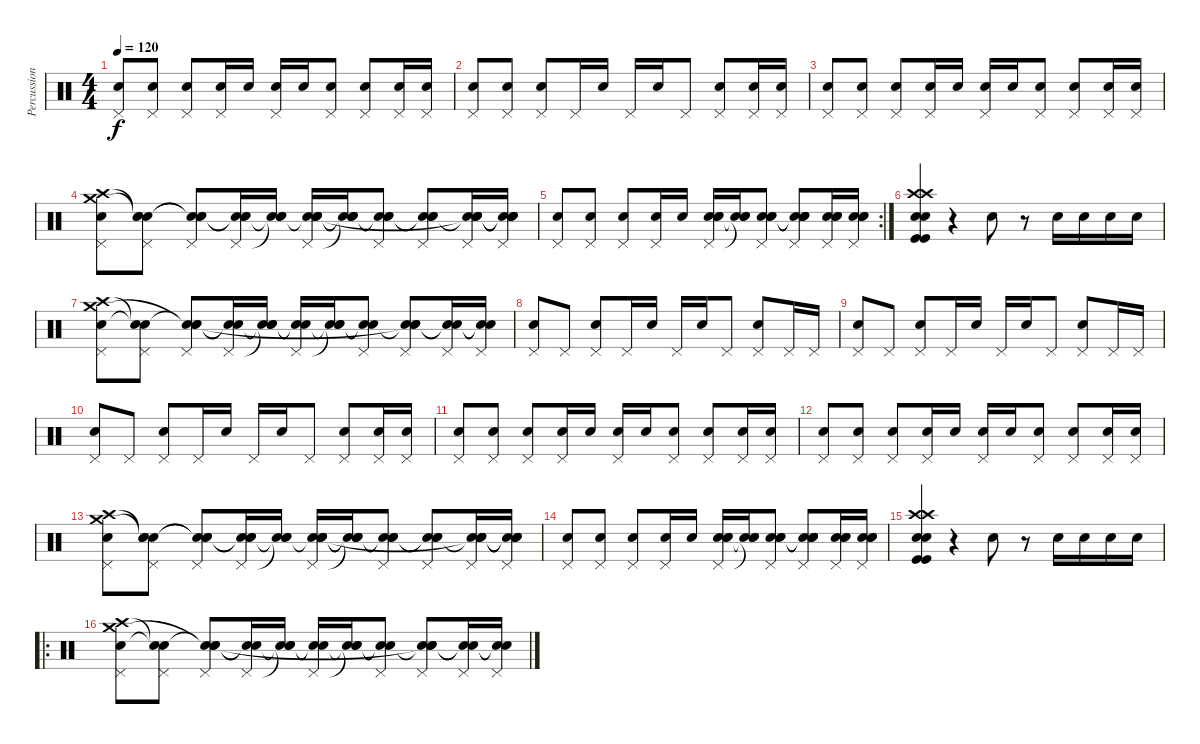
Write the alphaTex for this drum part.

\track ("Percussion" "Percussion") {instrument percussion}
\staff {score}
\articulation defaults
\ts (4 4)
\tempo 120
\clef neutral
\ks c
("Pedal Hi-Hat (hit)" "Snare (hit) 2").8{dy f} ("Pedal Hi-Hat (hit)" "Snare (hit) 2").8 ("Pedal Hi-Hat (hit)" "Electric Snare (hit)").8 ("Pedal Hi-Hat (hit)" "Snare (hit) 2").16 "Snare (hit) 2".16 ("Pedal Hi-Hat (hit)" "Snare (hit) 2").16 "Snare (hit) 2".16 ("Pedal Hi-Hat (hit)" "Snare (hit) 2").8 ("Pedal Hi-Hat (hit)" "Electric Snare (hit)").8 ("Pedal Hi-Hat (hit)" "Snare (hit) 2").16 ("Pedal Hi-Hat (hit)" "Snare (hit) 2").16 |
("Pedal Hi-Hat (hit)" "Snare (hit) 2").8 ("Pedal Hi-Hat (hit)" "Snare (hit) 2").8 ("Pedal Hi-Hat (hit)" "Electric Snare (hit)").8 "Pedal Hi-Hat (hit)".16 "Snare (hit) 2".16 "Pedal Hi-Hat (hit)".16 "Snare (hit) 2".16 "Pedal Hi-Hat (hit)".8 ("Pedal Hi-Hat (hit)" "Electric Snare (hit)").8 ("Pedal Hi-Hat (hit)" "Snare (hit) 2").16 ("Pedal Hi-Hat (hit)" "Snare (hit) 2").16 |
("Pedal Hi-Hat (hit)" "Snare (hit) 2").8 ("Pedal Hi-Hat (hit)" "Snare (hit) 2").8 ("Pedal Hi-Hat (hit)" "Electric Snare (hit)").8 ("Pedal Hi-Hat (hit)" "Snare (hit) 2").16 "Snare (hit) 2".16 ("Pedal Hi-Hat (hit)" "Snare (hit) 2").16 "Snare (hit) 2".16 ("Pedal Hi-Hat (hit)" "Snare (hit) 2").8 ("Pedal Hi-Hat (hit)" "Electric Snare (hit)").8 ("Pedal Hi-Hat (hit)" "Snare (hit) 2").16 ("Pedal Hi-Hat (hit)" "Snare (hit) 2").16 |
("Pedal Hi-Hat (hit)" "Crash high (hit)" "Snare (hit) 2" "Crash medium (hit)").8 ("Pedal Hi-Hat (hit)" "Snare (hit)"{t} "Snare (hit) 2" "Snare (hit)"{t}).8 ("Pedal Hi-Hat (hit)" "Snare (hit)"{t} "Electric Snare (hit)" "Snare (hit)"{t}).8 ("Pedal Hi-Hat (hit)" "Snare (hit)"{t} "Electric Snare (hit)" "Snare (hit)"{t}).16 ("Snare (hit)"{t} "Snare (hit) 2" "Snare (hit)"{t}).16 ("Pedal Hi-Hat (hit)" "Snare (hit)"{t} "Electric Snare (hit)" "Snare (hit) 2" "Snare (hit)").16 ("Snare (hit)"{t} "Electric Snare (hit)"{t} "Snare (hit) 2" "Snare (hit)"{t}).16 ("Pedal Hi-Hat (hit)" "Snare (hit)"{t} "Snare (hit) 2" "Snare (hit)"{t}).8 ("Pedal Hi-Hat (hit)" "Snare (hit)"{t} "Electric Snare (hit)" "Snare (hit)"{t}).8 ("Pedal Hi-Hat (hit)" "Snare (hit)"{t} "Electric Snare (hit)" "Snare (hit) 2" "Snare (hit)"{t}).16 ("Pedal Hi-Hat (hit)" "Snare (hit)"{t} "Snare (hit)"{t} "Snare (hit) 2" "Snare (hit)"{t}).16 |
\rc 2
("Pedal Hi-Hat (hit)" "Snare (hit) 2").8 ("Pedal Hi-Hat (hit)" "Snare (hit) 2").8 ("Pedal Hi-Hat (hit)" "Electric Snare (hit)").8 ("Pedal Hi-Hat (hit)" "Snare (hit) 2").16 "Snare (hit) 2".16 ("Pedal Hi-Hat (hit)" "Electric Snare (hit)" "Electric Snare (hit)" "Snare (hit) 2").16 ("Snare (hit)"{t} "Electric Snare (hit)"{t} "Snare (hit) 2").16 ("Pedal Hi-Hat (hit)" "Electric Snare (hit)" "Electric Snare (hit)" "Snare (hit) 2").8 ("Pedal Hi-Hat (hit)" "Snare (hit)"{t} "Electric Snare (hit)"{t} "Electric Snare (hit)" "Electric Snare (hit)").8 ("Pedal Hi-Hat (hit)" "Electric Snare (hit)" "Electric Snare (hit)" "Snare (hit) 2").16 ("Pedal Hi-Hat (hit)" "Electric Snare (hit)" "Electric Snare (hit)" "Snare (hit) 2").16 |
("Electric Snare (hit)" "Crash high (hit)" "Crash high (hit)" "Electric Snare (hit)" "Kick (hit)" "Kick (hit)").4 r.4 "Electric Snare (hit)".8 r.8 "Electric Snare (hit)".16 "Electric Snare (hit)".16 "Electric Snare (hit)".16 "Electric Snare (hit)".16 |
("Pedal Hi-Hat (hit)" "Crash high (hit)" "Snare (hit) 2" "Crash medium (hit)").8 ("Pedal Hi-Hat (hit)" "Snare (hit)"{t} "Snare (hit)"{t}).8 ("Pedal Hi-Hat (hit)" "Snare (hit)"{t} "Electric Snare (hit)" "Snare (hit)"{t}).8 ("Pedal Hi-Hat (hit)" "Snare (hit)"{t} "Snare (hit)"{t}).16 ("Snare (hit)"{t} "Snare (hit) 2" "Snare (hit)"{t}).16 ("Pedal Hi-Hat (hit)" "Snare (hit)"{t} "Snare (hit)"{t}).16 ("Snare (hit)"{t} "Snare (hit) 2" "Snare (hit)"{t}).16 ("Pedal Hi-Hat (hit)" "Snare (hit)"{t} "Snare (hit)"{t}).8 ("Pedal Hi-Hat (hit)" "Snare (hit)"{t} "Electric Snare (hit)" "Snare (hit)"{t}).8 ("Pedal Hi-Hat (hit)" "Snare (hit)"{t} "Snare (hit)"{t}).16 ("Pedal Hi-Hat (hit)" "Snare (hit)"{t} "Snare (hit)"{t}).16 |
("Pedal Hi-Hat (hit)" "Snare (hit) 2").8 "Pedal Hi-Hat (hit)".8 ("Pedal Hi-Hat (hit)" "Electric Snare (hit)").8 "Pedal Hi-Hat (hit)".16 "Snare (hit) 2".16 "Pedal Hi-Hat (hit)".16 "Snare (hit) 2".16 "Pedal Hi-Hat (hit)".8 ("Pedal Hi-Hat (hit)" "Electric Snare (hit)").8 "Pedal Hi-Hat (hit)".16 "Pedal Hi-Hat (hit)".16 |
("Pedal Hi-Hat (hit)" "Snare (hit) 2").8 "Pedal Hi-Hat (hit)".8 ("Pedal Hi-Hat (hit)" "Electric Snare (hit)").8 "Pedal Hi-Hat (hit)".16 "Snare (hit) 2".16 "Pedal Hi-Hat (hit)".16 "Snare (hit) 2".16 "Pedal Hi-Hat (hit)".8 ("Pedal Hi-Hat (hit)" "Electric Snare (hit)").8 "Pedal Hi-Hat (hit)".16 "Pedal Hi-Hat (hit)".16 |
("Pedal Hi-Hat (hit)" "Snare (hit) 2").8 "Pedal Hi-Hat (hit)".8 ("Pedal Hi-Hat (hit)" "Electric Snare (hit)").8 "Pedal Hi-Hat (hit)".16 "Snare (hit) 2".16 "Pedal Hi-Hat (hit)".16 "Snare (hit) 2".16 "Pedal Hi-Hat (hit)".8 ("Pedal Hi-Hat (hit)" "Electric Snare (hit)").8 ("Pedal Hi-Hat (hit)" "Snare (hit) 2").16 ("Pedal Hi-Hat (hit)" "Snare (hit) 2").16 |
("Pedal Hi-Hat (hit)" "Snare (hit) 2").8 ("Pedal Hi-Hat (hit)" "Snare (hit) 2").8 ("Pedal Hi-Hat (hit)" "Electric Snare (hit)").8 ("Pedal Hi-Hat (hit)" "Snare (hit) 2").16 "Snare (hit) 2".16 ("Pedal Hi-Hat (hit)" "Snare (hit) 2").16 "Snare (hit) 2".16 ("Pedal Hi-Hat (hit)" "Snare (hit) 2").8 ("Pedal Hi-Hat (hit)" "Electric Snare (hit)").8 ("Pedal Hi-Hat (hit)" "Snare (hit) 2").16 ("Pedal Hi-Hat (hit)" "Snare (hit) 2").16 |
("Pedal Hi-Hat (hit)" "Snare (hit) 2").8 ("Pedal Hi-Hat (hit)" "Snare (hit) 2").8 ("Pedal Hi-Hat (hit)" "Electric Snare (hit)").8 ("Pedal Hi-Hat (hit)" "Snare (hit) 2").16 "Snare (hit) 2".16 ("Pedal Hi-Hat (hit)" "Snare (hit) 2").16 "Snare (hit) 2".16 ("Pedal Hi-Hat (hit)" "Snare (hit) 2").8 ("Pedal Hi-Hat (hit)" "Electric Snare (hit)").8 ("Pedal Hi-Hat (hit)" "Snare (hit) 2").16 ("Pedal Hi-Hat (hit)" "Snare (hit) 2").16 |
("Pedal Hi-Hat (hit)" "Crash high (hit)" "Snare (hit) 2" "Crash medium (hit)").8 ("Pedal Hi-Hat (hit)" "Snare (hit)"{t} "Snare (hit) 2" "Snare (hit)"{t}).8 ("Pedal Hi-Hat (hit)" "Snare (hit)"{t} "Electric Snare (hit)" "Snare (hit)"{t}).8 ("Pedal Hi-Hat (hit)" "Snare (hit)"{t} "Electric Snare (hit)" "Snare (hit)"{t}).16 ("Snare (hit)"{t} "Snare (hit) 2" "Snare (hit)"{t}).16 ("Pedal Hi-Hat (hit)" "Snare (hit)"{t} "Electric Snare (hit)" "Snare (hit) 2" "Snare (hit)").16 ("Snare (hit)"{t} "Electric Snare (hit)"{t} "Snare (hit) 2" "Snare (hit)"{t}).16 ("Pedal Hi-Hat (hit)" "Snare (hit)"{t} "Snare (hit) 2" "Snare (hit)"{t}).8 ("Pedal Hi-Hat (hit)" "Snare (hit)"{t} "Electric Snare (hit)" "Snare (hit)"{t}).8 ("Pedal Hi-Hat (hit)" "Snare (hit)"{t} "Electric Snare (hit)" "Snare (hit) 2" "Snare (hit)"{t}).16 ("Pedal Hi-Hat (hit)" "Snare (hit)"{t} "Snare (hit)"{t} "Snare (hit) 2" "Snare (hit)"{t}).16 |
("Pedal Hi-Hat (hit)" "Snare (hit) 2").8 ("Pedal Hi-Hat (hit)" "Snare (hit) 2").8 ("Pedal Hi-Hat (hit)" "Electric Snare (hit)").8 ("Pedal Hi-Hat (hit)" "Snare (hit) 2").16 "Snare (hit) 2".16 ("Pedal Hi-Hat (hit)" "Electric Snare (hit)" "Electric Snare (hit)" "Snare (hit) 2").16 ("Snare (hit)"{t} "Electric Snare (hit)"{t} "Snare (hit) 2").16 ("Pedal Hi-Hat (hit)" "Electric Snare (hit)" "Electric Snare (hit)" "Snare (hit) 2").8 ("Pedal Hi-Hat (hit)" "Snare (hit)"{t} "Electric Snare (hit)"{t} "Electric Snare (hit)" "Electric Snare (hit)").8 ("Pedal Hi-Hat (hit)" "Electric Snare (hit)" "Electric Snare (hit)" "Snare (hit) 2").16 ("Pedal Hi-Hat (hit)" "Electric Snare (hit)" "Electric Snare (hit)" "Snare (hit) 2").16 |
("Electric Snare (hit)" "Crash high (hit)" "Crash high (hit)" "Electric Snare (hit)" "Kick (hit)" "Kick (hit)").4 r.4 "Electric Snare (hit)".8 r.8 "Electric Snare (hit)".16 "Electric Snare (hit)".16 "Electric Snare (hit)".16 "Electric Snare (hit)".16 |
\ro
("Pedal Hi-Hat (hit)" "Crash high (hit)" "Snare (hit) 2" "Crash medium (hit)").8 ("Pedal Hi-Hat (hit)" "Snare (hit)"{t} "Snare (hit)"{t}).8 ("Pedal Hi-Hat (hit)" "Snare (hit)"{t} "Electric Snare (hit)" "Snare (hit)"{t}).8 ("Pedal Hi-Hat (hit)" "Snare (hit)"{t} "Snare (hit)"{t}).16 ("Snare (hit)"{t} "Snare (hit) 2" "Snare (hit)"{t}).16 ("Pedal Hi-Hat (hit)" "Snare (hit)"{t} "Snare (hit)"{t}).16 ("Snare (hit)"{t} "Snare (hit) 2" "Snare (hit)"{t}).16 ("Pedal Hi-Hat (hit)" "Snare (hit)"{t} "Snare (hit)"{t}).8 ("Pedal Hi-Hat (hit)" "Snare (hit)"{t} "Electric Snare (hit)" "Snare (hit)"{t}).8 ("Pedal Hi-Hat (hit)" "Snare (hit)"{t} "Snare (hit)"{t}).16 ("Pedal Hi-Hat (hit)" "Snare (hit)"{t} "Snare (hit)"{t}).16
